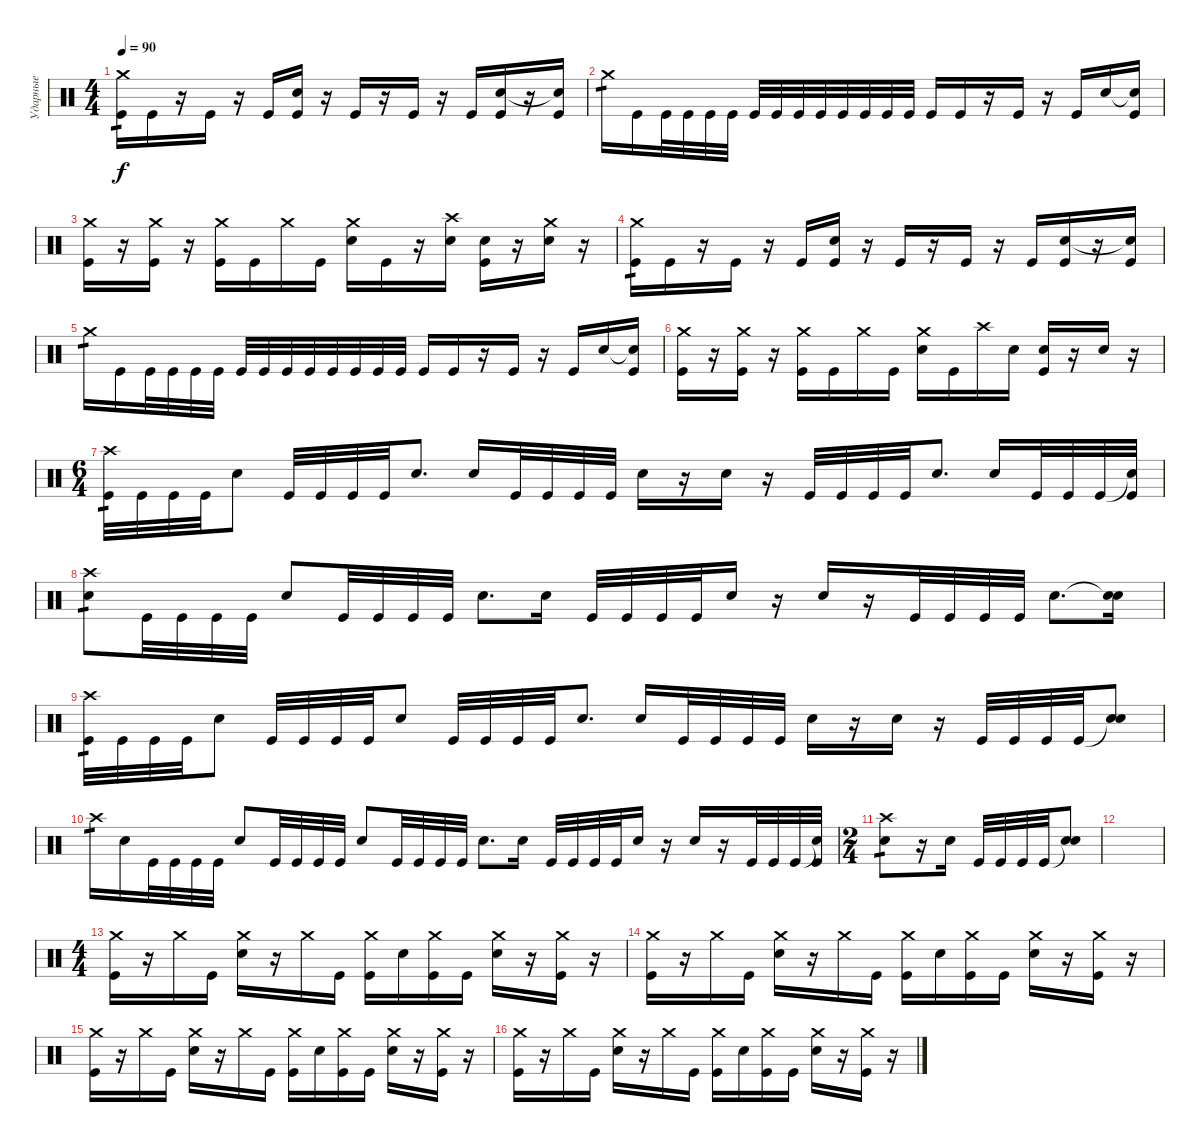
\track ("Ударные" "Ударные") {instrument percussion}
\staff {score}
\articulation defaults
\ts (4 4)
\tempo 90
\clef neutral
\ks c
("Crash medium (hit)" "Kick (hit)").16{tp 1 dy f} "Kick (hit)".16 r.16 "Kick (hit)".16 r.16 "Kick (hit)".16 ("Electric Snare (hit)" "Kick (hit)").16 r.16 "Kick (hit)".16 r.16 "Kick (hit)".16 r.16 "Kick (hit)".16 ("Electric Snare (hit)" "Kick (hit)").16 r.16 ("Snare (hit)"{t} "Kick (hit)").16 |
"Crash medium (hit)".16{tp 1} "Kick (hit)".16 "Kick (hit)".32 "Kick (hit)".32 "Kick (hit)".32 "Kick (hit)".32 "Kick (hit)".32 "Kick (hit)".32 "Kick (hit)".32 "Kick (hit)".32 "Kick (hit)".32 "Kick (hit)".32 "Kick (hit)".32 "Kick (hit)".32 "Kick (hit)".16 "Kick (hit)".16 r.16 "Kick (hit)".16 r.16 "Kick (hit)".16 "Electric Snare (hit)".16 ("Snare (hit)"{t} "Kick (hit)").16 |
("Crash medium (hit)" "Kick (hit)").16 r.16 ("Crash medium (hit)" "Kick (hit)").16 r.16 ("Crash medium (hit)" "Kick (hit)").16 "Kick (hit)".16 "Crash medium (hit)".16 "Kick (hit)".16 ("Crash medium (hit)" "Electric Snare (hit)").16 "Kick (hit)".16 r.16 ("Crash high (hit)" "Electric Snare (hit)").16 ("Electric Snare (hit)" "Kick (hit)").16 r.16 ("Crash medium (hit)" "Electric Snare (hit)").16 r.16 |
("Crash medium (hit)" "Kick (hit)").16{tp 1} "Kick (hit)".16 r.16 "Kick (hit)".16 r.16 "Kick (hit)".16 ("Electric Snare (hit)" "Kick (hit)").16 r.16 "Kick (hit)".16 r.16 "Kick (hit)".16 r.16 "Kick (hit)".16 ("Electric Snare (hit)" "Kick (hit)").16 r.16 ("Snare (hit)"{t} "Kick (hit)").16 |
"Crash medium (hit)".16{tp 1} "Kick (hit)".16 "Kick (hit)".32 "Kick (hit)".32 "Kick (hit)".32 "Kick (hit)".32 "Kick (hit)".32 "Kick (hit)".32 "Kick (hit)".32 "Kick (hit)".32 "Kick (hit)".32 "Kick (hit)".32 "Kick (hit)".32 "Kick (hit)".32 "Kick (hit)".16 "Kick (hit)".16 r.16 "Kick (hit)".16 r.16 "Kick (hit)".16 "Electric Snare (hit)".16 ("Snare (hit)"{t} "Kick (hit)").16 |
("Crash medium (hit)" "Kick (hit)").16 r.16 ("Crash medium (hit)" "Kick (hit)").16 r.16 ("Crash medium (hit)" "Kick (hit)").16 "Kick (hit)".16 "Crash medium (hit)".16 "Kick (hit)".16 ("Crash medium (hit)" "Electric Snare (hit)").16 "Kick (hit)".16 "Crash high (hit)".16 "Electric Snare (hit)".16 ("Electric Snare (hit)" "Kick (hit)").16 r.16 "Electric Snare (hit)".16 r.16 |
\ts (6 4)
("Crash high (hit)" "Kick (hit)").32{tp 1} "Kick (hit)".32 "Kick (hit)".32 "Kick (hit)".32 "Electric Snare (hit)".8 "Kick (hit)".32 "Kick (hit)".32 "Kick (hit)".32 "Kick (hit)".32 "Electric Snare (hit)".8{d} "Electric Snare (hit)".16 "Kick (hit)".32 "Kick (hit)".32 "Kick (hit)".32 "Kick (hit)".32 "Electric Snare (hit)".16 r.16 "Electric Snare (hit)".16 r.16 "Kick (hit)".32 "Kick (hit)".32 "Kick (hit)".32 "Kick (hit)".32 "Electric Snare (hit)".8{d} "Electric Snare (hit)".16 "Kick (hit)".32 "Kick (hit)".32 "Kick (hit)".32 ("Snare (hit)"{t} "Kick (hit)").32 |
("Crash high (hit)" "Electric Snare (hit)").8{tp 1} "Kick (hit)".32 "Kick (hit)".32 "Kick (hit)".32 "Kick (hit)".32 "Electric Snare (hit)".8 "Kick (hit)".32 "Kick (hit)".32 "Kick (hit)".32 "Kick (hit)".32 "Electric Snare (hit)".8{d} "Electric Snare (hit)".16 "Kick (hit)".32 "Kick (hit)".32 "Kick (hit)".32 "Kick (hit)".32 "Electric Snare (hit)".16 r.16 "Electric Snare (hit)".16 r.16 "Kick (hit)".32 "Kick (hit)".32 "Kick (hit)".32 "Kick (hit)".32 "Electric Snare (hit)".8{d} ("Snare (hit)"{t} "Electric Snare (hit)").16 |
("Crash high (hit)" "Kick (hit)").32{tp 1} "Kick (hit)".32 "Kick (hit)".32 "Kick (hit)".32 "Electric Snare (hit)".8 "Kick (hit)".32 "Kick (hit)".32 "Kick (hit)".32 "Kick (hit)".32 "Electric Snare (hit)".8 "Kick (hit)".32 "Kick (hit)".32 "Kick (hit)".32 "Kick (hit)".32 "Electric Snare (hit)".8{d} "Electric Snare (hit)".16 "Kick (hit)".32 "Kick (hit)".32 "Kick (hit)".32 "Kick (hit)".32 "Electric Snare (hit)".16 r.16 "Electric Snare (hit)".16 r.16 "Kick (hit)".32 "Kick (hit)".32 "Kick (hit)".32 "Kick (hit)".32 ("Snare (hit)"{t} "Electric Snare (hit)").8 |
"Crash high (hit)".16{tp 1} "Electric Snare (hit)".16 "Kick (hit)".32 "Kick (hit)".32 "Kick (hit)".32 "Kick (hit)".32 "Electric Snare (hit)".8 "Kick (hit)".32 "Kick (hit)".32 "Kick (hit)".32 "Kick (hit)".32 "Electric Snare (hit)".8 "Kick (hit)".32 "Kick (hit)".32 "Kick (hit)".32 "Kick (hit)".32 "Electric Snare (hit)".8{d} "Electric Snare (hit)".16 "Kick (hit)".32 "Kick (hit)".32 "Kick (hit)".32 "Kick (hit)".32 "Electric Snare (hit)".16 r.16 "Electric Snare (hit)".16 r.16 "Kick (hit)".32 "Kick (hit)".32 "Kick (hit)".32 ("Snare (hit)"{t} "Kick (hit)").32 |
\ts (2 4)
("Crash high (hit)" "Electric Snare (hit)").8{tp 1} r.16 "Electric Snare (hit)".16 "Kick (hit)".32 "Kick (hit)".32 "Kick (hit)".32 "Kick (hit)".32 ("Snare (hit)"{t} "Electric Snare (hit)").8 |
|
\ts (4 4)
("Crash medium (hit)" "Kick (hit)").16 r.16 "Crash medium (hit)".16 "Kick (hit)".16 ("Crash medium (hit)" "Electric Snare (hit)").16 r.16 "Crash medium (hit)".16 "Kick (hit)".16 ("Crash medium (hit)" "Kick (hit)").16 "Electric Snare (hit)".16 ("Crash medium (hit)" "Kick (hit)").16 "Kick (hit)".16 ("Crash medium (hit)" "Electric Snare (hit)").16 r.16 ("Crash medium (hit)" "Kick (hit)").16 r.16 |
("Crash medium (hit)" "Kick (hit)").16 r.16 "Crash medium (hit)".16 "Kick (hit)".16 ("Crash medium (hit)" "Electric Snare (hit)").16 r.16 "Crash medium (hit)".16 "Kick (hit)".16 ("Crash medium (hit)" "Kick (hit)").16 "Electric Snare (hit)".16 ("Crash medium (hit)" "Kick (hit)").16 "Kick (hit)".16 ("Crash medium (hit)" "Electric Snare (hit)").16 r.16 ("Crash medium (hit)" "Kick (hit)").16 r.16 |
("Crash medium (hit)" "Kick (hit)").16 r.16 "Crash medium (hit)".16 "Kick (hit)".16 ("Crash medium (hit)" "Electric Snare (hit)").16 r.16 "Crash medium (hit)".16 "Kick (hit)".16 ("Crash medium (hit)" "Kick (hit)").16 "Electric Snare (hit)".16 ("Crash medium (hit)" "Kick (hit)").16 "Kick (hit)".16 ("Crash medium (hit)" "Electric Snare (hit)").16 r.16 ("Crash medium (hit)" "Kick (hit)").16 r.16 |
("Crash medium (hit)" "Kick (hit)").16 r.16 "Crash medium (hit)".16 "Kick (hit)".16 ("Crash medium (hit)" "Electric Snare (hit)").16 r.16 "Crash medium (hit)".16 "Kick (hit)".16 ("Crash medium (hit)" "Kick (hit)").16 "Electric Snare (hit)".16 ("Crash medium (hit)" "Kick (hit)").16 "Kick (hit)".16 ("Crash medium (hit)" "Electric Snare (hit)").16 r.16 ("Crash medium (hit)" "Kick (hit)").16 r.16
